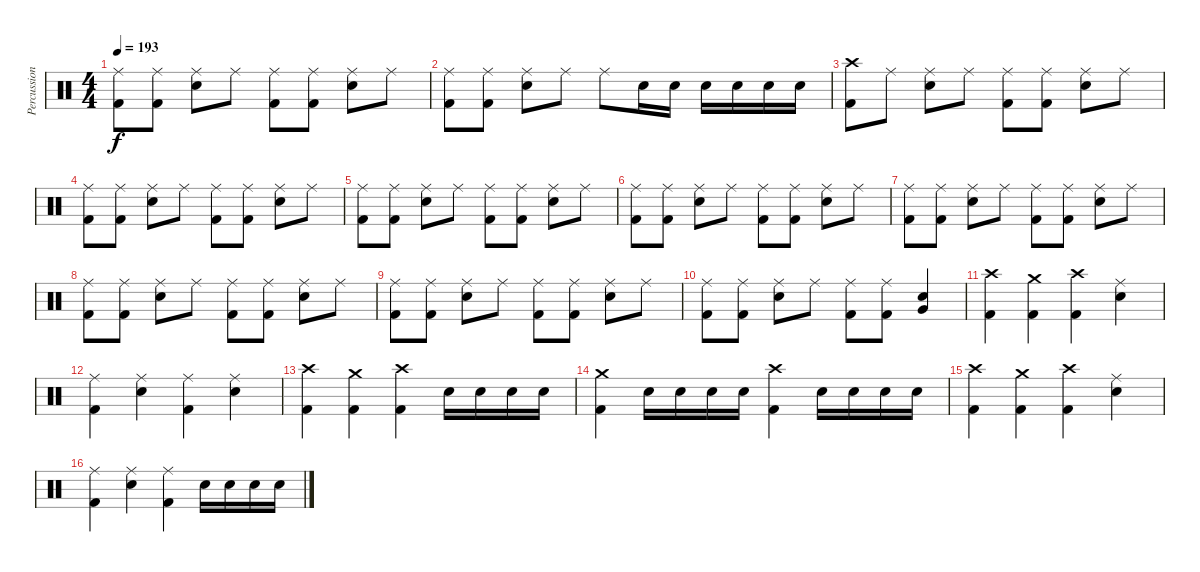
\track ("Percussion" "Percussion") {instrument percussion}
\staff {score}
\articulation defaults
\ts (4 4)
\tempo 193
\clef neutral
\ks c
("Ride (middle)" "Kick (hit) 2").8{dy f} ("Ride (middle)" "Kick (hit) 2").8 ("Ride (middle)" "Snare (hit) 2").8 "Ride (middle)".8 ("Ride (middle)" "Kick (hit) 2").8 ("Ride (middle)" "Kick (hit) 2").8 ("Ride (middle)" "Snare (hit) 2").8 "Ride (middle)".8 |
("Ride (middle)" "Kick (hit) 2").8 ("Ride (middle)" "Kick (hit) 2").8 ("Ride (middle)" "Snare (hit) 2").8 "Ride (middle)".8 "Ride (middle)".8 "Snare (hit) 2".16 "Snare (hit) 2".16 "Snare (hit) 2".16 "Snare (hit) 2".16 "Snare (hit) 2".16 "Snare (hit) 2".16 |
("Crash high (hit)" "Kick (hit) 2").8 "Ride (middle)".8 ("Ride (middle)" "Snare (hit) 2").8 "Ride (middle)".8 ("Ride (middle)" "Kick (hit) 2").8 ("Ride (middle)" "Kick (hit) 2").8 ("Ride (middle)" "Snare (hit) 2").8 "Ride (middle)".8 |
("Ride (middle)" "Kick (hit) 2").8 ("Ride (middle)" "Kick (hit) 2").8 ("Ride (middle)" "Snare (hit) 2").8 "Ride (middle)".8 ("Ride (middle)" "Kick (hit) 2").8 ("Ride (middle)" "Kick (hit) 2").8 ("Ride (middle)" "Snare (hit) 2").8 "Ride (middle)".8 |
("Ride (middle)" "Kick (hit) 2").8 ("Ride (middle)" "Kick (hit) 2").8 ("Ride (middle)" "Snare (hit) 2").8 "Ride (middle)".8 ("Ride (middle)" "Kick (hit) 2").8 ("Ride (middle)" "Kick (hit) 2").8 ("Ride (middle)" "Snare (hit) 2").8 "Ride (middle)".8 |
("Ride (middle)" "Kick (hit) 2").8 ("Ride (middle)" "Kick (hit) 2").8 ("Ride (middle)" "Snare (hit) 2").8 "Ride (middle)".8 ("Ride (middle)" "Kick (hit) 2").8 ("Ride (middle)" "Kick (hit) 2").8 ("Ride (middle)" "Snare (hit) 2").8 "Ride (middle)".8 |
("Ride (middle)" "Kick (hit) 2").8 ("Ride (middle)" "Kick (hit) 2").8 ("Ride (middle)" "Snare (hit) 2").8 "Ride (middle)".8 ("Ride (middle)" "Kick (hit) 2").8 ("Ride (middle)" "Kick (hit) 2").8 ("Ride (middle)" "Snare (hit) 2").8 "Ride (middle)".8 |
("Ride (middle)" "Kick (hit) 2").8 ("Ride (middle)" "Kick (hit) 2").8 ("Ride (middle)" "Snare (hit) 2").8 "Ride (middle)".8 ("Ride (middle)" "Kick (hit) 2").8 ("Ride (middle)" "Kick (hit) 2").8 ("Ride (middle)" "Snare (hit) 2").8 "Ride (middle)".8 |
("Ride (middle)" "Kick (hit) 2").8 ("Ride (middle)" "Kick (hit) 2").8 ("Ride (middle)" "Snare (hit) 2").8 "Ride (middle)".8 ("Ride (middle)" "Kick (hit) 2").8 ("Ride (middle)" "Kick (hit) 2").8 ("Ride (middle)" "Snare (hit) 2").8 "Ride (middle)".8 |
("Ride (middle)" "Kick (hit) 2").8 ("Ride (middle)" "Kick (hit) 2").8 ("Ride (middle)" "Snare (hit) 2").8 "Ride (middle)".8 ("Ride (middle)" "Kick (hit) 2").8 ("Ride (middle)" "Kick (hit) 2").8 ("Very Low Tom (hit)" "Snare (hit) 2").4 |
("Crash high (hit)" "Kick (hit) 2").4 ("Crash medium (hit)" "Kick (hit) 2").4 ("Crash high (hit)" "Kick (hit) 2").4 ("Ride (middle)" "Snare (hit) 2").4 |
("Ride (middle)" "Kick (hit) 2").4 ("Ride (middle)" "Snare (hit) 2").4 ("Ride (middle)" "Kick (hit) 2").4 ("Ride (middle)" "Snare (hit) 2").4 |
("Crash high (hit)" "Kick (hit) 2").4 ("Crash medium (hit)" "Kick (hit) 2").4 ("Crash high (hit)" "Kick (hit) 2").4 "Snare (hit) 2".16 "Snare (hit) 2".16 "Snare (hit) 2".16 "Snare (hit) 2".16 |
("Crash medium (hit)" "Kick (hit) 2").4 "Snare (hit) 2".16 "Snare (hit) 2".16 "Snare (hit) 2".16 "Snare (hit) 2".16 ("Crash high (hit)" "Kick (hit) 2").4 "Snare (hit) 2".16 "Snare (hit) 2".16 "Snare (hit) 2".16 "Snare (hit) 2".16 |
("Crash high (hit)" "Kick (hit) 2").4 ("Crash medium (hit)" "Kick (hit) 2").4 ("Crash high (hit)" "Kick (hit) 2").4 ("Ride (middle)" "Snare (hit) 2").4 |
("Ride (middle)" "Kick (hit) 2").4 ("Ride (middle)" "Snare (hit) 2").4 ("Ride (middle)" "Kick (hit) 2").4 "Snare (hit) 2".16 "Snare (hit) 2".16 "Snare (hit) 2".16 "Snare (hit) 2".16
